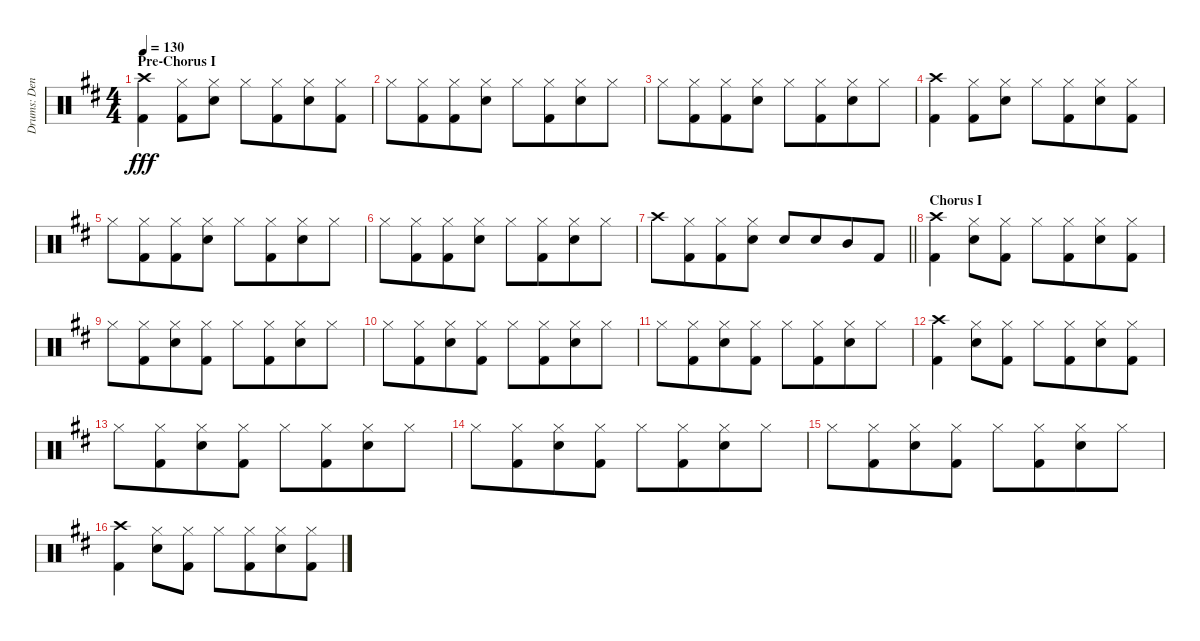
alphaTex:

\track ("Drums: Denny" "Drums: Den") {instrument percussion}
\staff {score}
\articulation defaults
\ts (4 4)
\section ("" "Pre-Chorus I")
\tempo 130
\clef neutral
\ks d
("Crash high (hit)" "Kick (hit) 2").4{dy fff beam merge} ("Hi-Hat (closed)" "Kick (hit) 2").8{beam merge} ("Hi-Hat (closed)" "Electric Snare (hit)").8 "Hi-Hat (closed)".8 ("Hi-Hat (closed)" "Kick (hit) 2").8{beam merge} ("Hi-Hat (closed)" "Electric Snare (hit)").8{beam merge} ("Hi-Hat (closed)" "Kick (hit) 2").8 |
"Hi-Hat (closed)".8 ("Hi-Hat (closed)" "Kick (hit) 2").8{beam merge} ("Hi-Hat (closed)" "Kick (hit) 2").8{beam merge} ("Hi-Hat (closed)" "Electric Snare (hit)").8 "Hi-Hat (closed)".8 ("Hi-Hat (closed)" "Kick (hit) 2").8{beam merge} ("Hi-Hat (closed)" "Electric Snare (hit)").8{beam merge} "Hi-Hat (closed)".8 |
"Hi-Hat (closed)".8 ("Hi-Hat (closed)" "Kick (hit) 2").8{beam merge} ("Hi-Hat (closed)" "Kick (hit) 2").8{beam merge} ("Hi-Hat (closed)" "Electric Snare (hit)").8 "Hi-Hat (closed)".8 ("Hi-Hat (closed)" "Kick (hit) 2").8{beam merge} ("Hi-Hat (closed)" "Electric Snare (hit)").8{beam merge} "Hi-Hat (closed)".8 |
("Crash high (hit)" "Kick (hit) 2").4{beam merge} ("Hi-Hat (closed)" "Kick (hit) 2").8{beam merge} ("Hi-Hat (closed)" "Electric Snare (hit)").8 "Hi-Hat (closed)".8 ("Hi-Hat (closed)" "Kick (hit) 2").8{beam merge} ("Hi-Hat (closed)" "Electric Snare (hit)").8{beam merge} ("Hi-Hat (closed)" "Kick (hit) 2").8 |
"Hi-Hat (closed)".8 ("Hi-Hat (closed)" "Kick (hit) 2").8{beam merge} ("Hi-Hat (closed)" "Kick (hit) 2").8{beam merge} ("Hi-Hat (closed)" "Electric Snare (hit)").8 "Hi-Hat (closed)".8 ("Hi-Hat (closed)" "Kick (hit) 2").8{beam merge} ("Hi-Hat (closed)" "Electric Snare (hit)").8{beam merge} "Hi-Hat (closed)".8 |
"Hi-Hat (closed)".8 ("Hi-Hat (closed)" "Kick (hit) 2").8{beam merge} ("Hi-Hat (closed)" "Kick (hit) 2").8{beam merge} ("Hi-Hat (closed)" "Electric Snare (hit)").8 "Hi-Hat (closed)".8 ("Hi-Hat (closed)" "Kick (hit) 2").8{beam merge} ("Hi-Hat (closed)" "Electric Snare (hit)").8{beam merge} "Hi-Hat (closed)".8 |
\barLineRight lightlight "Crash high (hit)".8
("Hi-Hat (closed)" "Kick (hit) 2").8{beam merge} ("Hi-Hat (closed)" "Kick (hit) 2").8{beam merge} ("Hi-Hat (closed)" "Electric Snare (hit)").8{beam split} "Electric Snare (hit)".8{beam merge} "Electric Snare (hit)".8{beam merge} "Mid Tom (hit)".8 "Kick (hit) 2".8 |
\section ("" "Chorus I")
("Crash high (hit)" "Kick (hit) 2").4 ("Hi-Hat (closed)" "Electric Snare (hit)").8 ("Hi-Hat (closed)" "Kick (hit) 2").8 "Hi-Hat (closed)".8 ("Hi-Hat (closed)" "Kick (hit) 2").8{beam merge} ("Hi-Hat (closed)" "Electric Snare (hit)").8 ("Hi-Hat (closed)" "Kick (hit) 2").8 |
"Hi-Hat (closed)".8 ("Hi-Hat (closed)" "Kick (hit) 2").8{beam merge} ("Hi-Hat (closed)" "Electric Snare (hit)").8 ("Hi-Hat (closed)" "Kick (hit) 2").8 "Hi-Hat (closed)".8 ("Hi-Hat (closed)" "Kick (hit) 2").8{beam merge} ("Hi-Hat (closed)" "Electric Snare (hit)").8 "Hi-Hat (closed)".8 |
"Hi-Hat (closed)".8 ("Hi-Hat (closed)" "Kick (hit) 2").8{beam merge} ("Hi-Hat (closed)" "Electric Snare (hit)").8 ("Hi-Hat (closed)" "Kick (hit) 2").8 "Hi-Hat (closed)".8 ("Hi-Hat (closed)" "Kick (hit) 2").8{beam merge} ("Hi-Hat (closed)" "Electric Snare (hit)").8 "Hi-Hat (closed)".8 |
"Hi-Hat (closed)".8 ("Hi-Hat (closed)" "Kick (hit) 2").8{beam merge} ("Hi-Hat (closed)" "Electric Snare (hit)").8 ("Hi-Hat (closed)" "Kick (hit) 2").8 "Hi-Hat (closed)".8 ("Hi-Hat (closed)" "Kick (hit) 2").8{beam merge} ("Hi-Hat (closed)" "Electric Snare (hit)").8 "Hi-Hat (closed)".8 |
("Crash high (hit)" "Kick (hit) 2").4 ("Hi-Hat (closed)" "Electric Snare (hit)").8 ("Hi-Hat (closed)" "Kick (hit) 2").8 "Hi-Hat (closed)".8 ("Hi-Hat (closed)" "Kick (hit) 2").8{beam merge} ("Hi-Hat (closed)" "Electric Snare (hit)").8 ("Hi-Hat (closed)" "Kick (hit) 2").8 |
"Hi-Hat (closed)".8 ("Hi-Hat (closed)" "Kick (hit) 2").8{beam merge} ("Hi-Hat (closed)" "Electric Snare (hit)").8 ("Hi-Hat (closed)" "Kick (hit) 2").8 "Hi-Hat (closed)".8 ("Hi-Hat (closed)" "Kick (hit) 2").8{beam merge} ("Hi-Hat (closed)" "Electric Snare (hit)").8 "Hi-Hat (closed)".8 |
"Hi-Hat (closed)".8 ("Hi-Hat (closed)" "Kick (hit) 2").8{beam merge} ("Hi-Hat (closed)" "Electric Snare (hit)").8 ("Hi-Hat (closed)" "Kick (hit) 2").8 "Hi-Hat (closed)".8 ("Hi-Hat (closed)" "Kick (hit) 2").8{beam merge} ("Hi-Hat (closed)" "Electric Snare (hit)").8 "Hi-Hat (closed)".8 |
"Hi-Hat (closed)".8 ("Hi-Hat (closed)" "Kick (hit) 2").8{beam merge} ("Hi-Hat (closed)" "Electric Snare (hit)").8 ("Hi-Hat (closed)" "Kick (hit) 2").8 "Hi-Hat (closed)".8 ("Hi-Hat (closed)" "Kick (hit) 2").8{beam merge} ("Hi-Hat (closed)" "Electric Snare (hit)").8 "Hi-Hat (closed)".8 |
("Crash high (hit)" "Kick (hit) 2").4 ("Hi-Hat (closed)" "Electric Snare (hit)").8 ("Hi-Hat (closed)" "Kick (hit) 2").8 "Hi-Hat (closed)".8 ("Hi-Hat (closed)" "Kick (hit) 2").8{beam merge} ("Hi-Hat (closed)" "Electric Snare (hit)").8 ("Hi-Hat (closed)" "Kick (hit) 2").8
